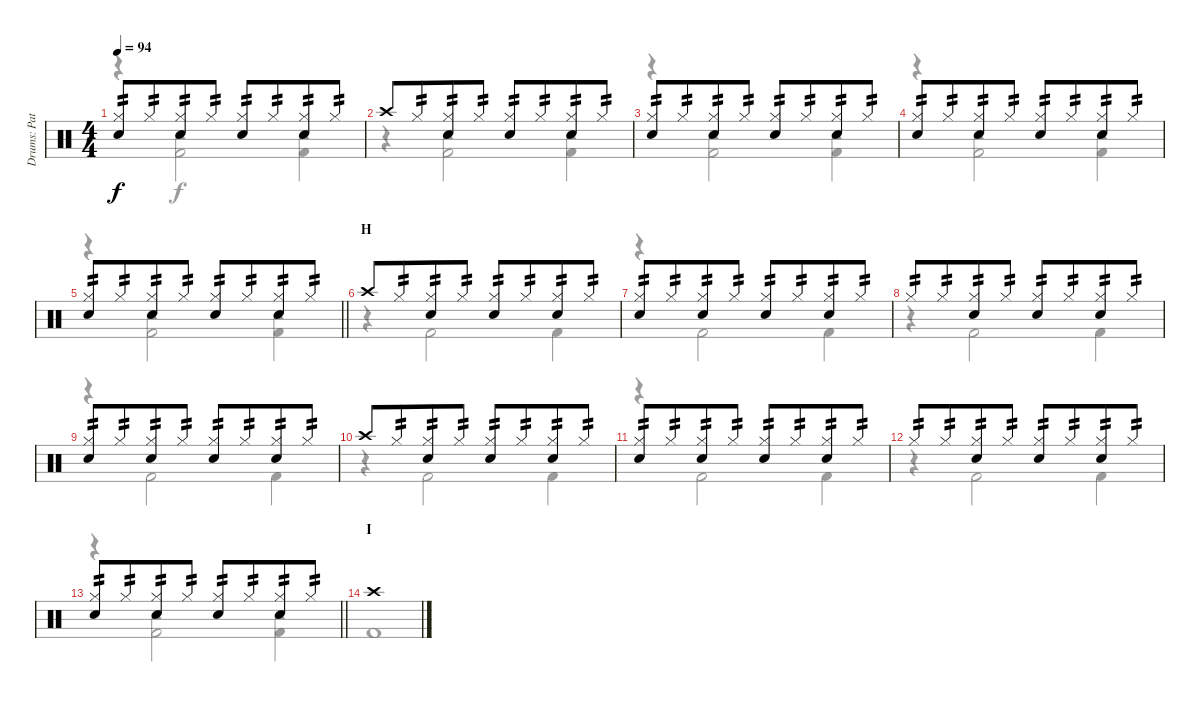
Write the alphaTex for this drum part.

\track ("Drums: Pat" "Drums: Pat") {instrument percussion}
\staff {score}
\articulation defaults
\voice
\ts (4 4)
\tempo 94
\clef neutral
\ks c
("Hi-Hat (closed)" "Electric Snare (hit)").8{tp 2 dy f} "Hi-Hat (closed)".8{tp 2 beam merge} ("Hi-Hat (closed)" "Electric Snare (hit)").8{tp 2} "Hi-Hat (closed)".8{tp 2} ("Hi-Hat (closed)" "Electric Snare (hit)").8{tp 2} "Hi-Hat (closed)".8{tp 2 beam merge} ("Hi-Hat (closed)" "Electric Snare (hit)").8{tp 2} "Hi-Hat (closed)".8{tp 2} |
"Crash high (hit)".8 "Hi-Hat (closed)".8{tp 2 beam merge} ("Hi-Hat (closed)" "Electric Snare (hit)").8{tp 2} "Hi-Hat (closed)".8{tp 2} ("Hi-Hat (closed)" "Electric Snare (hit)").8{tp 2} "Hi-Hat (closed)".8{tp 2 beam merge} ("Hi-Hat (closed)" "Electric Snare (hit)").8{tp 2} "Hi-Hat (closed)".8{tp 2} |
("Hi-Hat (closed)" "Electric Snare (hit)").8{tp 2} "Hi-Hat (closed)".8{tp 2 beam merge} ("Hi-Hat (closed)" "Electric Snare (hit)").8{tp 2} "Hi-Hat (closed)".8{tp 2} ("Hi-Hat (closed)" "Electric Snare (hit)").8{tp 2} "Hi-Hat (closed)".8{tp 2 beam merge} ("Hi-Hat (closed)" "Electric Snare (hit)").8{tp 2} "Hi-Hat (closed)".8{tp 2} |
("Hi-Hat (closed)" "Electric Snare (hit)").8{tp 2} "Hi-Hat (closed)".8{tp 2 beam merge} ("Hi-Hat (closed)" "Electric Snare (hit)").8{tp 2} "Hi-Hat (closed)".8{tp 2} ("Hi-Hat (closed)" "Electric Snare (hit)").8{tp 2} "Hi-Hat (closed)".8{tp 2 beam merge} ("Hi-Hat (closed)" "Electric Snare (hit)").8{tp 2} "Hi-Hat (closed)".8{tp 2} |
\barLineRight lightlight
("Hi-Hat (closed)" "Electric Snare (hit)").8{tp 2} "Hi-Hat (closed)".8{tp 2 beam merge} ("Hi-Hat (closed)" "Electric Snare (hit)").8{tp 2} "Hi-Hat (closed)".8{tp 2} ("Hi-Hat (closed)" "Electric Snare (hit)").8{tp 2} "Hi-Hat (closed)".8{tp 2 beam merge} ("Hi-Hat (closed)" "Electric Snare (hit)").8{tp 2} "Hi-Hat (closed)".8{tp 2} |
\section ("" "H")
"Crash high (hit)".8 "Hi-Hat (closed)".8{tp 2 beam merge} ("Hi-Hat (closed)" "Electric Snare (hit)").8{tp 2} "Hi-Hat (closed)".8{tp 2} ("Hi-Hat (closed)" "Electric Snare (hit)").8{tp 2} "Hi-Hat (closed)".8{tp 2 beam merge} ("Hi-Hat (closed)" "Electric Snare (hit)").8{tp 2} "Hi-Hat (closed)".8{tp 2} |
("Hi-Hat (closed)" "Electric Snare (hit)").8{tp 2} "Hi-Hat (closed)".8{tp 2 beam merge} ("Hi-Hat (closed)" "Electric Snare (hit)").8{tp 2} "Hi-Hat (closed)".8{tp 2} ("Hi-Hat (closed)" "Electric Snare (hit)").8{tp 2} "Hi-Hat (closed)".8{tp 2 beam merge} ("Hi-Hat (closed)" "Electric Snare (hit)").8{tp 2} "Hi-Hat (closed)".8{tp 2} |
"Hi-Hat (closed)".8{tp 2} "Hi-Hat (closed)".8{tp 2 beam merge} ("Hi-Hat (closed)" "Electric Snare (hit)").8{tp 2} "Hi-Hat (closed)".8{tp 2} ("Hi-Hat (closed)" "Electric Snare (hit)").8{tp 2} "Hi-Hat (closed)".8{tp 2 beam merge} ("Hi-Hat (closed)" "Electric Snare (hit)").8{tp 2} "Hi-Hat (closed)".8{tp 2} |
("Hi-Hat (closed)" "Electric Snare (hit)").8{tp 2} "Hi-Hat (closed)".8{tp 2 beam merge} ("Hi-Hat (closed)" "Electric Snare (hit)").8{tp 2} "Hi-Hat (closed)".8{tp 2} ("Hi-Hat (closed)" "Electric Snare (hit)").8{tp 2} "Hi-Hat (closed)".8{tp 2 beam merge} ("Hi-Hat (closed)" "Electric Snare (hit)").8{tp 2} "Hi-Hat (closed)".8{tp 2} |
"Crash high (hit)".8 "Hi-Hat (closed)".8{tp 2 beam merge} ("Hi-Hat (closed)" "Electric Snare (hit)").8{tp 2} "Hi-Hat (closed)".8{tp 2} ("Hi-Hat (closed)" "Electric Snare (hit)").8{tp 2} "Hi-Hat (closed)".8{tp 2 beam merge} ("Hi-Hat (closed)" "Electric Snare (hit)").8{tp 2} "Hi-Hat (closed)".8{tp 2} |
("Hi-Hat (closed)" "Electric Snare (hit)").8{tp 2} "Hi-Hat (closed)".8{tp 2 beam merge} ("Hi-Hat (closed)" "Electric Snare (hit)").8{tp 2} "Hi-Hat (closed)".8{tp 2} ("Hi-Hat (closed)" "Electric Snare (hit)").8{tp 2} "Hi-Hat (closed)".8{tp 2 beam merge} ("Hi-Hat (closed)" "Electric Snare (hit)").8{tp 2} "Hi-Hat (closed)".8{tp 2} |
"Hi-Hat (closed)".8{tp 2} "Hi-Hat (closed)".8{tp 2 beam merge} ("Hi-Hat (closed)" "Electric Snare (hit)").8{tp 2} "Hi-Hat (closed)".8{tp 2} ("Hi-Hat (closed)" "Electric Snare (hit)").8{tp 2} "Hi-Hat (closed)".8{tp 2 beam merge} ("Hi-Hat (closed)" "Electric Snare (hit)").8{tp 2} "Hi-Hat (closed)".8{tp 2} |
\barLineRight lightlight
("Hi-Hat (closed)" "Electric Snare (hit)").8{tp 2} "Hi-Hat (closed)".8{tp 2 beam merge} ("Hi-Hat (closed)" "Electric Snare (hit)").8{tp 2} "Hi-Hat (closed)".8{tp 2} ("Hi-Hat (closed)" "Electric Snare (hit)").8{tp 2} "Hi-Hat (closed)".8{tp 2 beam merge} ("Hi-Hat (closed)" "Electric Snare (hit)").8{tp 2} "Hi-Hat (closed)".8{tp 2} |
\section ("" "I")
"Crash high (hit)".1 |
|
\voice
\clef neutral
\ottava regular
\simile none
\ks c
r.4{dy f} ("Kick (hit) 2" "Tambourine (hit)").2 ("Kick (hit) 2" "Tambourine (hit)").4 |
r.4 ("Kick (hit) 2" "Tambourine (hit)").2 ("Kick (hit) 2" "Tambourine (hit)").4 |
r.4 ("Kick (hit) 2" "Tambourine (hit)").2 ("Kick (hit) 2" "Tambourine (hit)").4 |
r.4 ("Kick (hit) 2" "Tambourine (hit)").2 ("Kick (hit) 2" "Tambourine (hit)").4 |
\barLineRight lightlight
r.4 ("Kick (hit) 2" "Tambourine (hit)").2 ("Kick (hit) 2" "Tambourine (hit)").4 |
r.4 "Kick (hit) 2".2 "Kick (hit) 2".4 |
r.4 "Kick (hit) 2".2 "Kick (hit) 2".4 |
r.4 "Kick (hit) 2".2 "Kick (hit) 2".4 |
r.4 "Kick (hit) 2".2 "Kick (hit) 2".4 |
r.4 "Kick (hit) 2".2 "Kick (hit) 2".4 |
r.4 "Kick (hit) 2".2 "Kick (hit) 2".4 |
r.4 "Kick (hit) 2".2 "Kick (hit) 2".4 |
\barLineRight lightlight
r.4 ("Kick (hit) 2" "Tambourine (hit)").2 ("Kick (hit) 2" "Tambourine (hit)").4 |
"Kick (hit) 2".1 |
|
